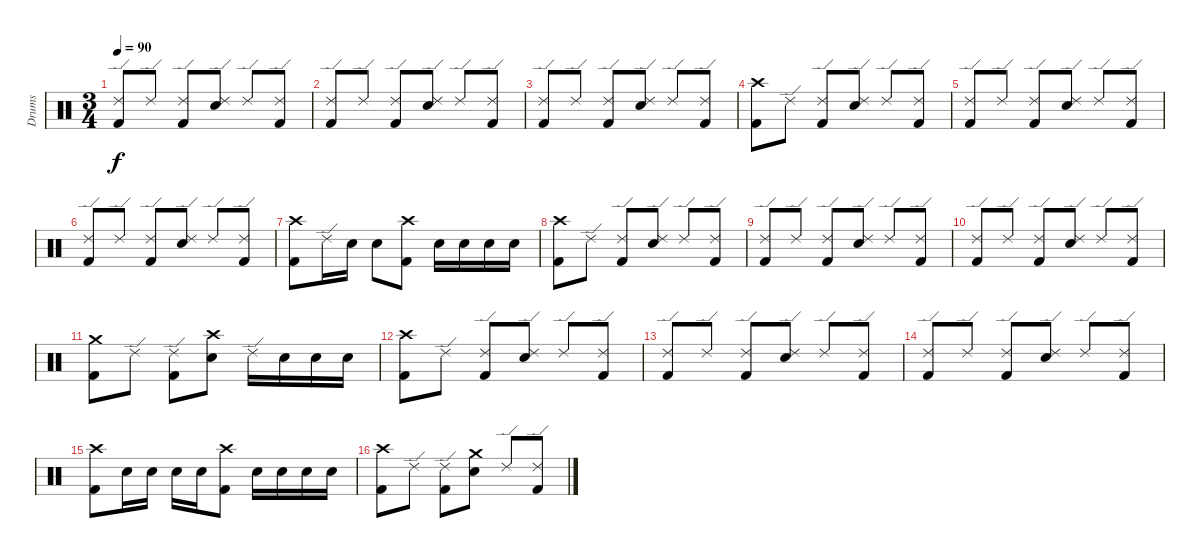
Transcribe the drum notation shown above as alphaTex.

\track ("Drums" "Drums") {instrument percussion}
\staff {score}
\articulation defaults
\ts (3 4)
\tempo 90
\clef neutral
\ks c
("Ride (edge) 2" "Kick (hit) 2").8{dy f} "Ride (edge) 2".8 ("Ride (edge) 2" "Kick (hit) 2").8 ("Ride (edge) 2" "Electric Snare (hit)").8 "Ride (edge) 2".8 ("Ride (edge) 2" "Kick (hit) 2").8 |
("Ride (edge) 2" "Kick (hit) 2").8 "Ride (edge) 2".8 ("Ride (edge) 2" "Kick (hit) 2").8 ("Ride (edge) 2" "Electric Snare (hit)").8 "Ride (edge) 2".8 ("Ride (edge) 2" "Kick (hit) 2").8 |
("Ride (edge) 2" "Kick (hit) 2").8 "Ride (edge) 2".8 ("Ride (edge) 2" "Kick (hit) 2").8 ("Ride (edge) 2" "Electric Snare (hit)").8 "Ride (edge) 2".8 ("Ride (edge) 2" "Kick (hit) 2").8 |
("Crash high (hit)" "Kick (hit) 2").8 "Ride (edge) 2".8 ("Ride (edge) 2" "Kick (hit) 2").8 ("Ride (edge) 2" "Electric Snare (hit)").8 "Ride (edge) 2".8 ("Ride (edge) 2" "Kick (hit) 2").8 |
("Ride (edge) 2" "Kick (hit) 2").8 "Ride (edge) 2".8 ("Ride (edge) 2" "Kick (hit) 2").8 ("Ride (edge) 2" "Electric Snare (hit)").8 "Ride (edge) 2".8 ("Ride (edge) 2" "Kick (hit) 2").8 |
("Ride (edge) 2" "Kick (hit) 2").8 "Ride (edge) 2".8 ("Ride (edge) 2" "Kick (hit) 2").8 ("Ride (edge) 2" "Electric Snare (hit)").8 "Ride (edge) 2".8 ("Ride (edge) 2" "Kick (hit) 2").8 |
("Crash high (hit)" "Kick (hit) 2").8 "Ride (edge) 2".16 "Electric Snare (hit)".16 "Electric Snare (hit)".8 ("Crash high (hit)" "Kick (hit) 2").8 "Electric Snare (hit)".16 "Electric Snare (hit)".16 "Electric Snare (hit)".16 "Electric Snare (hit)".16 |
("Crash high (hit)" "Kick (hit) 2").8 "Ride (edge) 2".8 ("Ride (edge) 2" "Kick (hit) 2").8 ("Ride (edge) 2" "Electric Snare (hit)").8 "Ride (edge) 2".8 ("Ride (edge) 2" "Kick (hit) 2").8 |
("Ride (edge) 2" "Kick (hit) 2").8 "Ride (edge) 2".8 ("Ride (edge) 2" "Kick (hit) 2").8 ("Ride (edge) 2" "Electric Snare (hit)").8 "Ride (edge) 2".8 ("Ride (edge) 2" "Kick (hit) 2").8 |
("Ride (edge) 2" "Kick (hit) 2").8 "Ride (edge) 2".8 ("Ride (edge) 2" "Kick (hit) 2").8 ("Ride (edge) 2" "Electric Snare (hit)").8 "Ride (edge) 2".8 ("Ride (edge) 2" "Kick (hit) 2").8 |
("Crash medium (hit)" "Kick (hit) 2").8 "Ride (edge) 2".8 ("Ride (edge) 2" "Kick (hit) 2").8 ("Crash high (hit)" "Electric Snare (hit)").8 "Ride (edge) 2".16 "Electric Snare (hit)".16 "Electric Snare (hit)".16 "Electric Snare (hit)".16 |
("Crash high (hit)" "Kick (hit) 2").8 "Ride (edge) 2".8 ("Ride (edge) 2" "Kick (hit) 2").8 ("Ride (edge) 2" "Electric Snare (hit)").8 "Ride (edge) 2".8 ("Ride (edge) 2" "Kick (hit) 2").8 |
("Ride (edge) 2" "Kick (hit) 2").8 "Ride (edge) 2".8 ("Ride (edge) 2" "Kick (hit) 2").8 ("Ride (edge) 2" "Electric Snare (hit)").8 "Ride (edge) 2".8 ("Ride (edge) 2" "Kick (hit) 2").8 |
("Ride (edge) 2" "Kick (hit) 2").8 "Ride (edge) 2".8 ("Ride (edge) 2" "Kick (hit) 2").8 ("Ride (edge) 2" "Electric Snare (hit)").8 "Ride (edge) 2".8 ("Ride (edge) 2" "Kick (hit) 2").8 |
("Crash high (hit)" "Kick (hit) 2").8 "Electric Snare (hit)".16 "Electric Snare (hit)".16 "Electric Snare (hit)".16 "Electric Snare (hit)".16 ("Crash high (hit)" "Kick (hit) 2").8 "Electric Snare (hit)".16 "Electric Snare (hit)".16 "Electric Snare (hit)".16 "Electric Snare (hit)".16 |
("Crash high (hit)" "Kick (hit) 2").8 "Ride (edge) 2".8 ("Ride (edge) 2" "Kick (hit) 2").8 ("Crash medium (hit)" "Electric Snare (hit)").8 "Ride (edge) 2".8 ("Ride (edge) 2" "Kick (hit) 2").8
